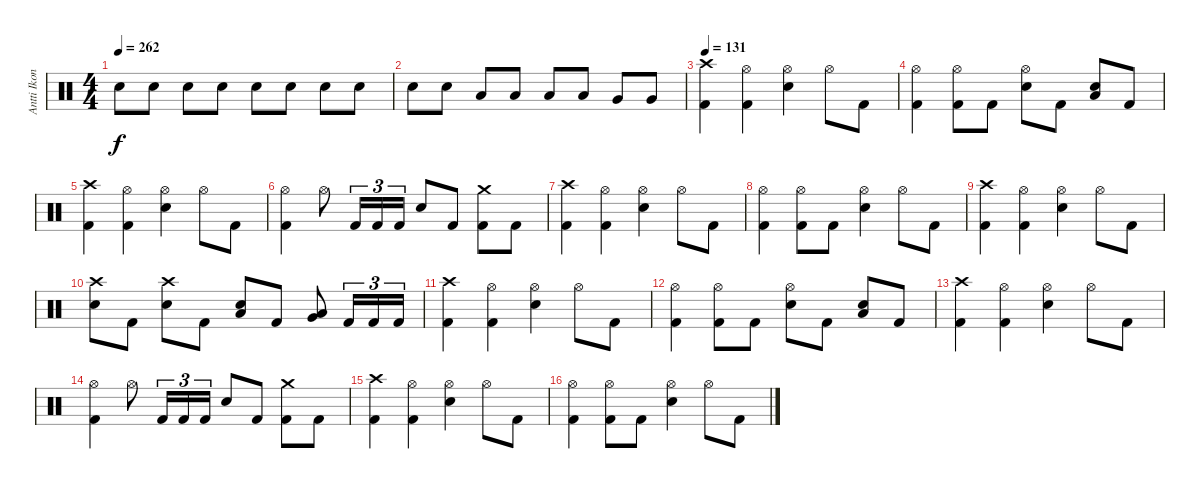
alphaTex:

\track ("Antti Ikonen" "Antti Ikon") {instrument percussion}
\staff {score}
\articulation defaults
\ts (4 4)
\tempo 262
\clef neutral
\ks c "Electric Snare (hit)".8{dy f} "Electric Snare (hit)".8 "Electric Snare (hit)".8 "Electric Snare (hit)".8 "Electric Snare (hit)".8 "Electric Snare (hit)".8 "Electric Snare (hit)".8 "Electric Snare (hit)".8
|
"Electric Snare (hit)".8 "Electric Snare (hit)".8 "Low Tom (hit)".8 "Low Tom (hit)".8 "Low Tom (hit)".8 "Low Tom (hit)".8 "Very Low Tom (hit)".8 "Very Low Tom (hit)".8 |
\tempo 131
("Crash high (hit)" "Kick (hit) 2").4 ("Hi-Hat (open)" "Kick (hit) 2").4 ("Hi-Hat (open)" "Electric Snare (hit)").4 "Hi-Hat (open)".8 "Kick (hit) 2".8 |
("Hi-Hat (open)" "Kick (hit) 2").4 ("Hi-Hat (open)" "Kick (hit) 2").8 "Kick (hit) 2".8 ("Hi-Hat (open)" "Electric Snare (hit)").8 "Kick (hit) 2".8 ("Electric Snare (hit)" "Low Tom (hit)").8 "Kick (hit) 2".8 |
("Crash high (hit)" "Kick (hit) 2").4 ("Hi-Hat (open)" "Kick (hit) 2").4 ("Hi-Hat (open)" "Electric Snare (hit)").4 "Hi-Hat (open)".8 "Kick (hit) 2".8 |
("Hi-Hat (open)" "Kick (hit) 2").4 "Hi-Hat (open)".8 "Kick (hit) 2".16{tu (3 2)} "Kick (hit) 2".16{tu (3 2)} "Kick (hit) 2".16{tu (3 2)} "Electric Snare (hit)".8 "Kick (hit) 2".8 ("Crash medium (hit)" "Kick (hit) 2").8 "Kick (hit) 2".8 |
("Crash high (hit)" "Kick (hit) 2").4 ("Hi-Hat (open)" "Kick (hit) 2").4 ("Hi-Hat (open)" "Electric Snare (hit)").4 "Hi-Hat (open)".8 "Kick (hit) 2".8 |
("Hi-Hat (open)" "Kick (hit) 2").4 ("Hi-Hat (open)" "Kick (hit) 2").8 "Kick (hit) 2".8 ("Hi-Hat (open)" "Electric Snare (hit)").4 "Hi-Hat (open)".8 "Kick (hit) 2".8 |
("Crash high (hit)" "Kick (hit) 2").4 ("Hi-Hat (open)" "Kick (hit) 2").4 ("Hi-Hat (open)" "Electric Snare (hit)").4 "Hi-Hat (open)".8 "Kick (hit) 2".8 |
("Crash high (hit)" "Electric Snare (hit)").8 "Kick (hit) 2".8 ("Crash high (hit)" "Electric Snare (hit)").8 "Kick (hit) 2".8 ("Electric Snare (hit)" "Low Tom (hit)").8 "Kick (hit) 2".8 ("Low Tom (hit)" "Very Low Tom (hit)").8 "Kick (hit) 2".16{tu (3 2)} "Kick (hit) 2".16{tu (3 2)} "Kick (hit) 2".16{tu (3 2)} |
("Crash high (hit)" "Kick (hit) 2").4 ("Hi-Hat (open)" "Kick (hit) 2").4 ("Hi-Hat (open)" "Electric Snare (hit)").4 "Hi-Hat (open)".8 "Kick (hit) 2".8 |
("Hi-Hat (open)" "Kick (hit) 2").4 ("Hi-Hat (open)" "Kick (hit) 2").8 "Kick (hit) 2".8 ("Hi-Hat (open)" "Electric Snare (hit)").8 "Kick (hit) 2".8 ("Electric Snare (hit)" "Low Tom (hit)").8 "Kick (hit) 2".8 |
("Crash high (hit)" "Kick (hit) 2").4 ("Hi-Hat (open)" "Kick (hit) 2").4 ("Hi-Hat (open)" "Electric Snare (hit)").4 "Hi-Hat (open)".8 "Kick (hit) 2".8 |
("Hi-Hat (open)" "Kick (hit) 2").4 "Hi-Hat (open)".8 "Kick (hit) 2".16{tu (3 2)} "Kick (hit) 2".16{tu (3 2)} "Kick (hit) 2".16{tu (3 2)} "Electric Snare (hit)".8 "Kick (hit) 2".8 ("Crash medium (hit)" "Kick (hit) 2").8 "Kick (hit) 2".8 |
("Crash high (hit)" "Kick (hit) 2").4 ("Hi-Hat (open)" "Kick (hit) 2").4 ("Hi-Hat (open)" "Electric Snare (hit)").4 "Hi-Hat (open)".8 "Kick (hit) 2".8 |
("Hi-Hat (open)" "Kick (hit) 2").4 ("Hi-Hat (open)" "Kick (hit) 2").8 "Kick (hit) 2".8 ("Hi-Hat (open)" "Electric Snare (hit)").4 "Hi-Hat (open)".8 "Kick (hit) 2".8
